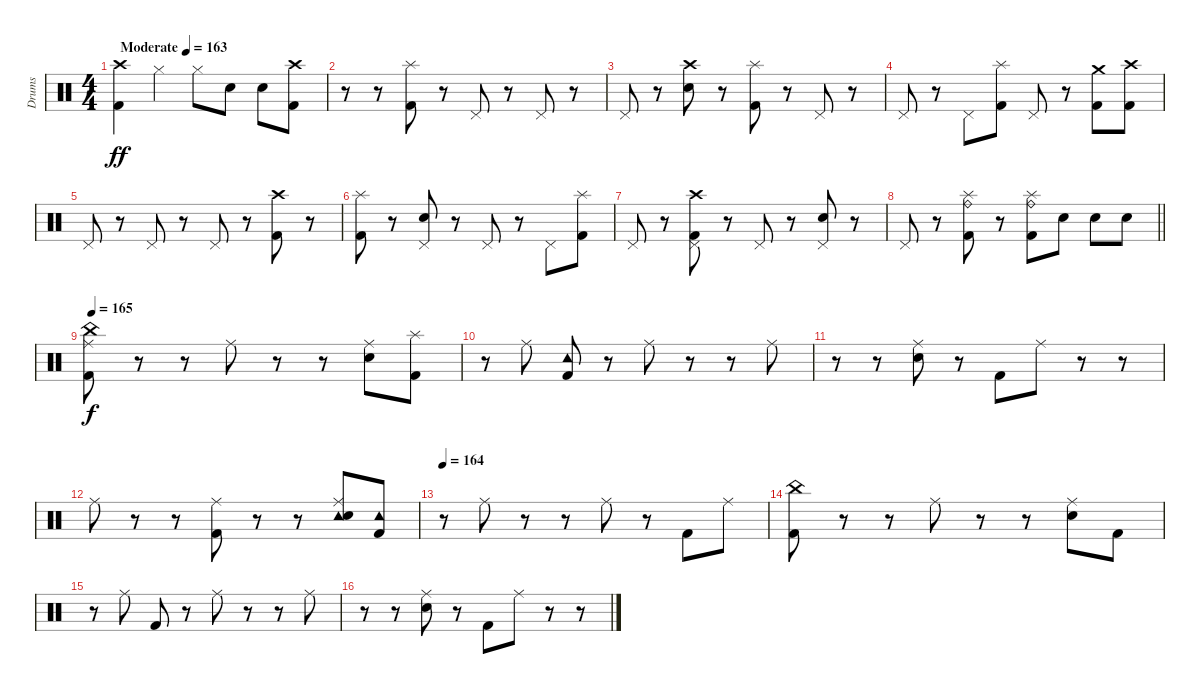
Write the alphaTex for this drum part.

\track ("Drums" "Drums") {instrument percussion}
\staff {score}
\articulation defaults
\ts (4 4)
\section ("" "")
\tempo (163 "Moderate")
\clef neutral
\ks c
("Crash high (hit)" "Kick (hit) 2").4{dy ff} "Hi-Hat (closed)".4 "Hi-Hat (closed)".8 "Electric Snare (hit)".8 "Electric Snare (hit)".8 ("Crash high (hit)" "Kick (hit) 2").8 |
r.8 r.8 ("Splash (hit)" "Kick (hit) 2").8 r.8 "Pedal Hi-Hat (hit)".8 r.8 "Pedal Hi-Hat (hit)".8 r.8 |
"Pedal Hi-Hat (hit)".8 r.8 ("Crash high (hit)" "Electric Snare (hit)").8 r.8 ("Splash (hit)" "Kick (hit) 2").8 r.8 "Pedal Hi-Hat (hit)".8 r.8 |
"Pedal Hi-Hat (hit)".8 r.8 "Pedal Hi-Hat (hit)".8 ("Splash (hit)" "Kick (hit) 2").8 "Pedal Hi-Hat (hit)".8 r.8 ("Crash medium (hit)" "Kick (hit) 2").8 ("Crash high (hit)" "Kick (hit) 2").8 |
"Pedal Hi-Hat (hit)".8 r.8 "Pedal Hi-Hat (hit)".8 r.8 "Pedal Hi-Hat (hit)".8 r.8 ("Crash high (hit)" "Kick (hit) 2").8 r.8 |
("Splash (hit)" "Kick (hit) 2").8 r.8 ("Pedal Hi-Hat (hit)" "Electric Snare (hit)").8 r.8 "Pedal Hi-Hat (hit)".8 r.8 "Pedal Hi-Hat (hit)".8 ("Splash (hit)" "Kick (hit) 2").8 |
"Pedal Hi-Hat (hit)".8 r.8 ("Crash high (hit)" "Pedal Hi-Hat (hit)" "Kick (hit) 2").8 r.8 "Pedal Hi-Hat (hit)".8 r.8 ("Pedal Hi-Hat (hit)" "Electric Snare (hit)").8 r.8 |
\barLineRight lightlight "Pedal Hi-Hat (hit)".8
r.8 ("Splash (hit)" "Ride (bell)" "Kick (hit) 2").8 r.8 ("Splash (hit)" "Ride (bell)" "Kick (hit) 2").8 "Electric Snare (hit)".8 "Electric Snare (hit)".8 "Electric Snare (hit)".8 |
\section ("" "")
\tempo 165
("China (hit)" "Ride (middle)" "Kick (hit) 2").8{dy f} r.8 r.8 "Ride (middle)".8 r.8 r.8 ("Ride (middle)" "Electric Snare (hit)").8 ("Splash (hit)" "Kick (hit) 2").8 |
r.8 "Ride (middle)".8 ("Tambourine (hit)" "Kick (hit) 2").8 r.8 "Ride (middle)".8 r.8 r.8 "Ride (middle)".8 |
r.8 r.8 ("Ride (middle)" "Electric Snare (hit)").8 r.8 "Kick (hit) 2".8 "Ride (middle)".8 r.8 r.8 |
"Ride (middle)".8 r.8 r.8 ("Ride (middle)" "Kick (hit) 2").8 r.8 r.8 ("Tambourine (hit)" "Ride (middle)" "Electric Snare (hit)").8 ("Tambourine (hit)" "Kick (hit) 2").8 |
\tempo 164
r.8 "Ride (middle)".8 r.8 r.8 "Ride (middle)".8 r.8 "Kick (hit) 2".8 "Ride (middle)".8 |
("China (hit)" "Kick (hit) 2").8 r.8 r.8 "Ride (middle)".8 r.8 r.8 ("Ride (middle)" "Electric Snare (hit)").8 "Kick (hit) 2".8 |
r.8 "Ride (middle)".8 "Kick (hit) 2".8 r.8 "Ride (middle)".8 r.8 r.8 "Ride (middle)".8 |
r.8 r.8 ("Ride (middle)" "Electric Snare (hit)").8 r.8 "Kick (hit) 2".8 "Ride (middle)".8 r.8 r.8
